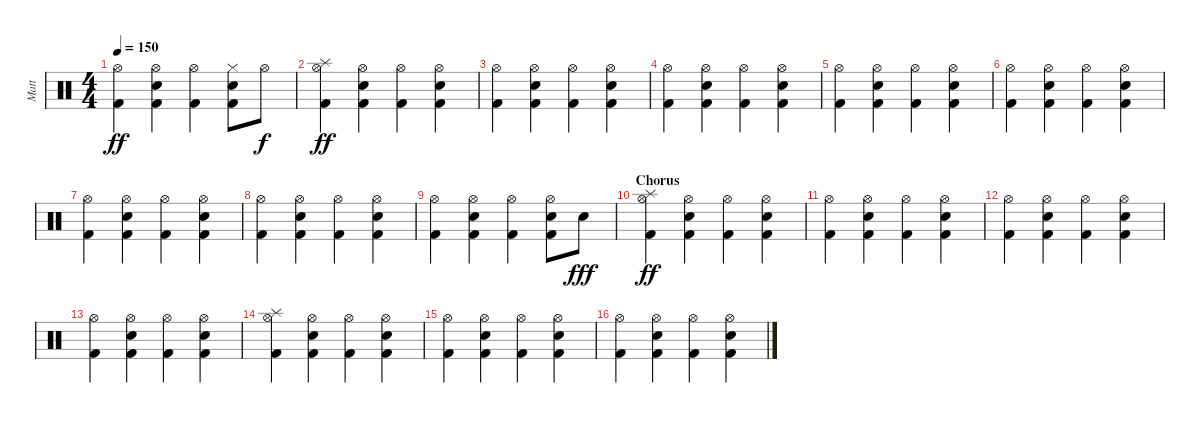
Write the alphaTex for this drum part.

\track ("Matt" "Matt") {instrument percussion}
\staff {score}
\articulation defaults
\ts (4 4)
\tempo 150
\clef neutral
\ks c
("Hi-Hat (open)" "Kick (hit) 2").4{dy ff} ("Hi-Hat (open)" "Electric Snare (hit)" "Kick (hit) 2").4 ("Hi-Hat (open)" "Kick (hit) 2").4 ("Hi-Hat (closed)" "Electric Snare (hit)" "Kick (hit) 2").8 "Hi-Hat (open)".8{dy f} |
("Splash (hit)" "Hi-Hat (open)" "Kick (hit) 2").4{dy ff} ("Hi-Hat (open)" "Electric Snare (hit)" "Kick (hit) 2").4 ("Hi-Hat (open)" "Kick (hit) 2").4 ("Hi-Hat (open)" "Electric Snare (hit)" "Kick (hit) 2").4 |
("Hi-Hat (open)" "Kick (hit) 2").4 ("Hi-Hat (open)" "Electric Snare (hit)" "Kick (hit) 2").4 ("Hi-Hat (open)" "Kick (hit) 2").4 ("Hi-Hat (open)" "Electric Snare (hit)" "Kick (hit) 2").4 |
("Hi-Hat (open)" "Kick (hit) 2").4 ("Hi-Hat (open)" "Electric Snare (hit)" "Kick (hit) 2").4 ("Hi-Hat (open)" "Kick (hit) 2").4 ("Hi-Hat (open)" "Electric Snare (hit)" "Kick (hit) 2").4 |
("Hi-Hat (open)" "Kick (hit) 2").4 ("Hi-Hat (open)" "Electric Snare (hit)" "Kick (hit) 2").4 ("Hi-Hat (open)" "Kick (hit) 2").4 ("Hi-Hat (open)" "Electric Snare (hit)" "Kick (hit) 2").4 |
("Hi-Hat (open)" "Kick (hit) 2").4 ("Hi-Hat (open)" "Electric Snare (hit)" "Kick (hit) 2").4 ("Hi-Hat (open)" "Kick (hit) 2").4 ("Hi-Hat (open)" "Electric Snare (hit)" "Kick (hit) 2").4 |
("Hi-Hat (open)" "Kick (hit) 2").4 ("Hi-Hat (open)" "Electric Snare (hit)" "Kick (hit) 2").4 ("Hi-Hat (open)" "Kick (hit) 2").4 ("Hi-Hat (open)" "Electric Snare (hit)" "Kick (hit) 2").4 |
("Hi-Hat (open)" "Kick (hit) 2").4 ("Hi-Hat (open)" "Electric Snare (hit)" "Kick (hit) 2").4 ("Hi-Hat (open)" "Kick (hit) 2").4 ("Hi-Hat (open)" "Electric Snare (hit)" "Kick (hit) 2").4 |
("Hi-Hat (open)" "Kick (hit) 2").4 ("Hi-Hat (open)" "Electric Snare (hit)" "Kick (hit) 2").4 ("Hi-Hat (open)" "Kick (hit) 2").4 ("Hi-Hat (open)" "Electric Snare (hit)" "Kick (hit) 2").8 "Electric Snare (hit)".8{dy fff} |
\section ("" "Chorus")
("Splash (hit)" "Hi-Hat (open)" "Kick (hit) 2").4{dy ff} ("Hi-Hat (open)" "Electric Snare (hit)" "Kick (hit) 2").4 ("Hi-Hat (open)" "Kick (hit) 2").4 ("Hi-Hat (open)" "Electric Snare (hit)" "Kick (hit) 2").4 |
("Hi-Hat (open)" "Kick (hit) 2").4 ("Hi-Hat (open)" "Electric Snare (hit)" "Kick (hit) 2").4 ("Hi-Hat (open)" "Kick (hit) 2").4 ("Hi-Hat (open)" "Electric Snare (hit)" "Kick (hit) 2").4 |
("Hi-Hat (open)" "Kick (hit) 2").4 ("Hi-Hat (open)" "Electric Snare (hit)" "Kick (hit) 2").4 ("Hi-Hat (open)" "Kick (hit) 2").4 ("Hi-Hat (open)" "Electric Snare (hit)" "Kick (hit) 2").4 |
("Hi-Hat (open)" "Kick (hit) 2").4 ("Hi-Hat (open)" "Electric Snare (hit)" "Kick (hit) 2").4 ("Hi-Hat (open)" "Kick (hit) 2").4 ("Hi-Hat (open)" "Electric Snare (hit)" "Kick (hit) 2").4 |
("Splash (hit)" "Hi-Hat (open)" "Kick (hit) 2").4 ("Hi-Hat (open)" "Electric Snare (hit)" "Kick (hit) 2").4 ("Hi-Hat (open)" "Kick (hit) 2").4 ("Hi-Hat (open)" "Electric Snare (hit)" "Kick (hit) 2").4 |
("Hi-Hat (open)" "Kick (hit) 2").4 ("Hi-Hat (open)" "Electric Snare (hit)" "Kick (hit) 2").4 ("Hi-Hat (open)" "Kick (hit) 2").4 ("Hi-Hat (open)" "Electric Snare (hit)" "Kick (hit) 2").4 |
("Hi-Hat (open)" "Kick (hit) 2").4 ("Hi-Hat (open)" "Electric Snare (hit)" "Kick (hit) 2").4 ("Hi-Hat (open)" "Kick (hit) 2").4 ("Hi-Hat (open)" "Electric Snare (hit)" "Kick (hit) 2").4
